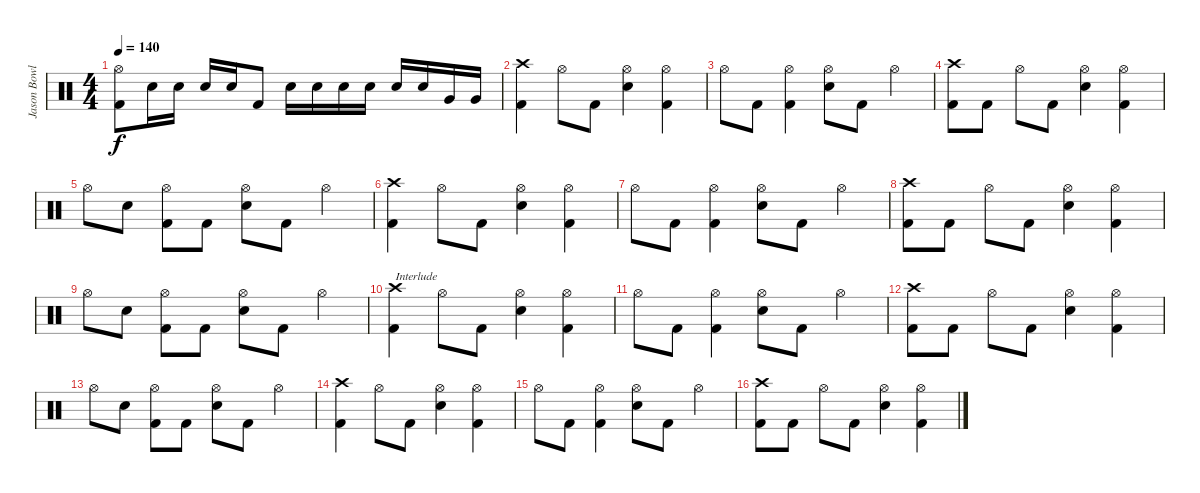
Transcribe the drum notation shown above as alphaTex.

\track ("Jason Bowld" "Jason Bowl") {instrument percussion}
\staff {score}
\articulation defaults
\ts (4 4)
\tempo 140
\clef neutral
\ks c
("Hi-Hat (open)" "Kick (hit) 2").8{dy f} "Snare (hit) 2".16 "Snare (hit) 2".16 "Snare (hit) 2".16 "Snare (hit) 2".16 "Kick (hit) 2".8 "Snare (hit) 2".16 "Snare (hit) 2".16 "Snare (hit) 2".16 "Snare (hit) 2".16 "Snare (hit) 2".16 "Snare (hit) 2".16 "Very Low Tom (hit)".16 "Very Low Tom (hit)".16 |
("Crash high (hit)" "Kick (hit) 2").4 "Hi-Hat (open)".8 "Kick (hit) 2".8 ("Hi-Hat (open)" "Snare (hit) 2").4 ("Hi-Hat (open)" "Kick (hit) 2").4 |
"Hi-Hat (open)".8 "Kick (hit) 2".8 ("Hi-Hat (open)" "Kick (hit) 2").4 ("Hi-Hat (open)" "Snare (hit) 2").8 "Kick (hit) 2".8 "Hi-Hat (open)".4 |
("Crash high (hit)" "Kick (hit) 2").8 "Kick (hit) 2".8 "Hi-Hat (open)".8 "Kick (hit) 2".8 ("Hi-Hat (open)" "Snare (hit) 2").4 ("Hi-Hat (open)" "Kick (hit) 2").4 |
"Hi-Hat (open)".8 "Snare (hit) 2".8 ("Hi-Hat (open)" "Kick (hit) 2").8 "Kick (hit) 2".8 ("Hi-Hat (open)" "Snare (hit) 2").8 "Kick (hit) 2".8 "Hi-Hat (open)".4 |
("Crash high (hit)" "Kick (hit) 2").4 "Hi-Hat (open)".8 "Kick (hit) 2".8 ("Hi-Hat (open)" "Snare (hit) 2").4 ("Hi-Hat (open)" "Kick (hit) 2").4 |
"Hi-Hat (open)".8 "Kick (hit) 2".8 ("Hi-Hat (open)" "Kick (hit) 2").4 ("Hi-Hat (open)" "Snare (hit) 2").8 "Kick (hit) 2".8 "Hi-Hat (open)".4 |
("Crash high (hit)" "Kick (hit) 2").8 "Kick (hit) 2".8 "Hi-Hat (open)".8 "Kick (hit) 2".8 ("Hi-Hat (open)" "Snare (hit) 2").4 ("Hi-Hat (open)" "Kick (hit) 2").4 |
"Hi-Hat (open)".8 "Snare (hit) 2".8 ("Hi-Hat (open)" "Kick (hit) 2").8 "Kick (hit) 2".8 ("Hi-Hat (open)" "Snare (hit) 2").8 "Kick (hit) 2".8 "Hi-Hat (open)".4 |
("Crash high (hit)" "Kick (hit) 2").4{txt "Interlude"} "Hi-Hat (open)".8 "Kick (hit) 2".8 ("Hi-Hat (open)" "Snare (hit) 2").4 ("Hi-Hat (open)" "Kick (hit) 2").4 |
"Hi-Hat (open)".8 "Kick (hit) 2".8 ("Hi-Hat (open)" "Kick (hit) 2").4 ("Hi-Hat (open)" "Snare (hit) 2").8 "Kick (hit) 2".8 "Hi-Hat (open)".4 |
("Crash high (hit)" "Kick (hit) 2").8 "Kick (hit) 2".8 "Hi-Hat (open)".8 "Kick (hit) 2".8 ("Hi-Hat (open)" "Snare (hit) 2").4 ("Hi-Hat (open)" "Kick (hit) 2").4 |
"Hi-Hat (open)".8 "Snare (hit) 2".8 ("Hi-Hat (open)" "Kick (hit) 2").8 "Kick (hit) 2".8 ("Hi-Hat (open)" "Snare (hit) 2").8 "Kick (hit) 2".8 "Hi-Hat (open)".4 |
("Crash high (hit)" "Kick (hit) 2").4 "Hi-Hat (open)".8 "Kick (hit) 2".8 ("Hi-Hat (open)" "Snare (hit) 2").4 ("Hi-Hat (open)" "Kick (hit) 2").4 |
"Hi-Hat (open)".8 "Kick (hit) 2".8 ("Hi-Hat (open)" "Kick (hit) 2").4 ("Hi-Hat (open)" "Snare (hit) 2").8 "Kick (hit) 2".8 "Hi-Hat (open)".4 |
("Crash high (hit)" "Kick (hit) 2").8 "Kick (hit) 2".8 "Hi-Hat (open)".8 "Kick (hit) 2".8 ("Hi-Hat (open)" "Snare (hit) 2").4 ("Hi-Hat (open)" "Kick (hit) 2").4
